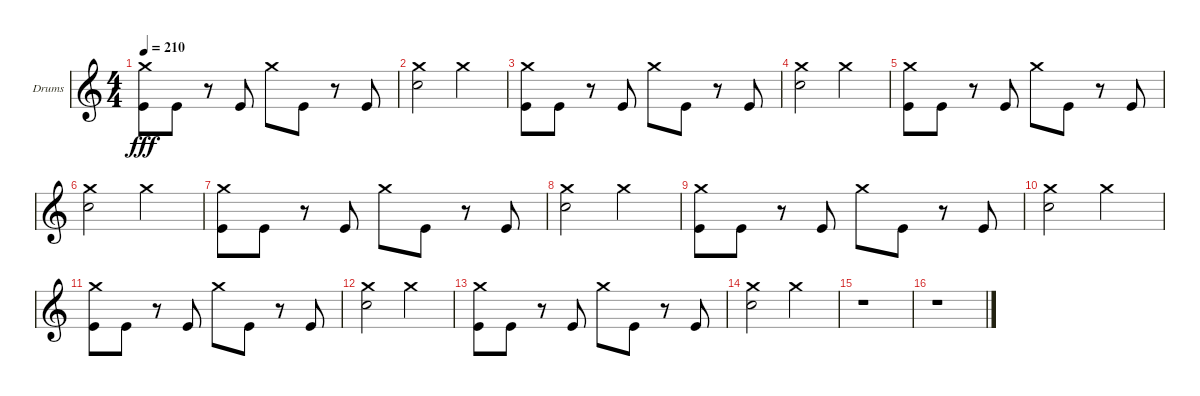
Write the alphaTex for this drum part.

\defaultSystemsLayout 4
\bracketExtendMode groupsimilarinstruments
\firstSystemTrackNameOrientation horizontal
\otherSystemsTrackNameOrientation horizontal
\track ("Dan Johnson (Drums)" "Drums") {instrument percussion}
\staff {score}
\articulation defaults
\ts (4 4)
\tempo 210
\clef g2
\ks c
("Kick (hit)" "Crash medium (hit)").8{dy fff} "Kick (hit)".8 r.8 "Kick (hit)".8 "Crash medium (hit)".8 "Kick (hit)".8 r.8 "Kick (hit)".8 |
("Snare (hit) 2" "Crash medium (hit)").2 "Crash medium (hit)".2 |
("Kick (hit)" "Crash medium (hit)").8 "Kick (hit)".8 r.8 "Kick (hit)".8 "Crash medium (hit)".8 "Kick (hit)".8 r.8 "Kick (hit)".8 |
("Snare (hit) 2" "Crash medium (hit)").2 "Crash medium (hit)".2 |
("Kick (hit)" "Crash medium (hit)").8 "Kick (hit)".8 r.8 "Kick (hit)".8 "Crash medium (hit)".8 "Kick (hit)".8 r.8 "Kick (hit)".8 |
("Snare (hit) 2" "Crash medium (hit)").2 "Crash medium (hit)".2 |
("Kick (hit)" "Crash medium (hit)").8 "Kick (hit)".8 r.8 "Kick (hit)".8 "Crash medium (hit)".8 "Kick (hit)".8 r.8 "Kick (hit)".8 |
("Snare (hit) 2" "Crash medium (hit)").2 "Crash medium (hit)".2 |
("Kick (hit)" "Crash medium (hit)").8 "Kick (hit)".8 r.8 "Kick (hit)".8 "Crash medium (hit)".8 "Kick (hit)".8 r.8 "Kick (hit)".8 |
("Snare (hit) 2" "Crash medium (hit)").2 "Crash medium (hit)".2 |
("Kick (hit)" "Crash medium (hit)").8 "Kick (hit)".8 r.8 "Kick (hit)".8 "Crash medium (hit)".8 "Kick (hit)".8 r.8 "Kick (hit)".8 |
("Snare (hit) 2" "Crash medium (hit)").2 "Crash medium (hit)".2 |
("Kick (hit)" "Crash medium (hit)").8 "Kick (hit)".8 r.8 "Kick (hit)".8 "Crash medium (hit)".8 "Kick (hit)".8 r.8 "Kick (hit)".8 |
("Snare (hit) 2" "Crash medium (hit)").2 "Crash medium (hit)".2 |
r.1 |
r.1
